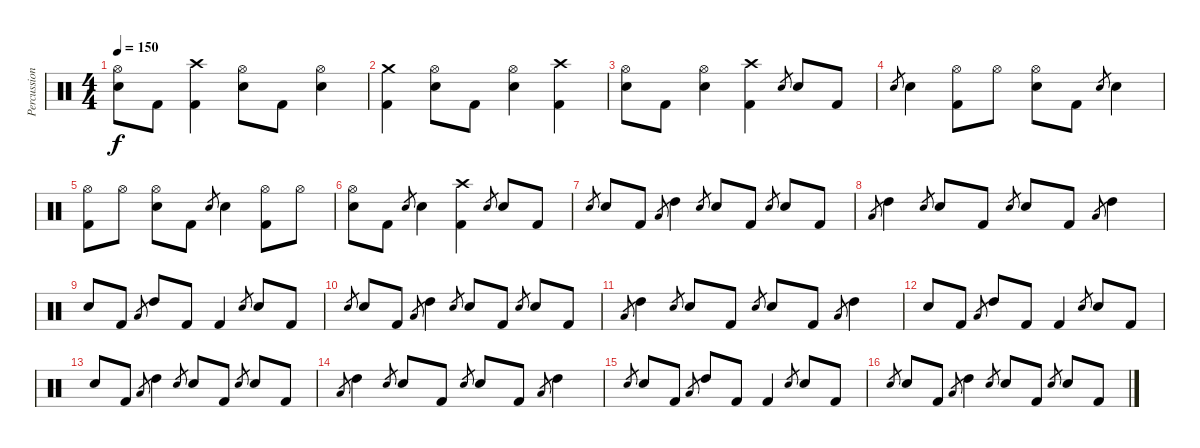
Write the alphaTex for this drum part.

\track ("Percussion" "Percussion") {instrument percussion}
\staff {score}
\articulation defaults
\ts (4 4)
\tempo 150
\clef neutral
\ks c
("Hi-Hat (open)" "Electric Snare (hit)").8{dy f} "Kick (hit) 2".8 ("Crash high (hit)" "Kick (hit) 2").4 ("Hi-Hat (open)" "Electric Snare (hit)").8 "Kick (hit) 2".8 ("Hi-Hat (open)" "Electric Snare (hit)").4 |
("Crash medium (hit)" "Kick (hit) 2").4 ("Hi-Hat (open)" "Electric Snare (hit)").8 "Kick (hit) 2".8 ("Hi-Hat (open)" "Electric Snare (hit)").4 ("Crash high (hit)" "Kick (hit) 2").4 |
("Hi-Hat (open)" "Electric Snare (hit)").8 "Kick (hit) 2".8 ("Hi-Hat (open)" "Electric Snare (hit)").4 ("Crash high (hit)" "Kick (hit) 2").4 "Electric Snare (hit)".8{gr} "Electric Snare (hit)".8 "Kick (hit) 2".8 |
"Electric Snare (hit)".8{gr} "Electric Snare (hit)".4 ("Hi-Hat (open)" "Kick (hit) 2").8 "Hi-Hat (open)".8 ("Hi-Hat (open)" "Electric Snare (hit)").8 "Kick (hit) 2".8 "Electric Snare (hit)".8{gr} "Electric Snare (hit)".4 |
("Hi-Hat (open)" "Kick (hit) 2").8 "Hi-Hat (open)".8 ("Hi-Hat (open)" "Electric Snare (hit)").8 "Kick (hit) 2".8 "Electric Snare (hit)".8{gr} "Electric Snare (hit)".4 ("Hi-Hat (open)" "Kick (hit) 2").8 "Hi-Hat (open)".8 |
("Hi-Hat (open)" "Electric Snare (hit)").8 "Kick (hit) 2".8 "Electric Snare (hit)".8{gr} "Electric Snare (hit)".4 ("Crash high (hit)" "Kick (hit) 2").4 "Electric Snare (hit)".8{gr} "Electric Snare (hit)".8 "Kick (hit) 2".8 |
"Electric Snare (hit)".8{gr} "Electric Snare (hit)".8 "Kick (hit) 2".8 "Low Tom (hit)".8{gr} "High Tom (hit)".4 "Electric Snare (hit)".8{gr} "Electric Snare (hit)".8 "Kick (hit) 2".8 "Electric Snare (hit)".8{gr} "Electric Snare (hit)".8 "Kick (hit) 2".8 |
"Low Tom (hit)".8{gr} "High Tom (hit)".4 "Electric Snare (hit)".8{gr} "Electric Snare (hit)".8 "Kick (hit) 2".8 "Electric Snare (hit)".8{gr} "Electric Snare (hit)".8 "Kick (hit) 2".8 "Low Tom (hit)".8{gr} "High Tom (hit)".4 |
"Electric Snare (hit)".8 "Kick (hit) 2".8 "Low Tom (hit)".8{gr} "High Tom (hit)".8 "Kick (hit) 2".8 "Kick (hit) 2".4 "Electric Snare (hit)".8{gr} "Electric Snare (hit)".8 "Kick (hit) 2".8 |
"Electric Snare (hit)".8{gr} "Electric Snare (hit)".8 "Kick (hit) 2".8 "Low Tom (hit)".8{gr} "High Tom (hit)".4 "Electric Snare (hit)".8{gr} "Electric Snare (hit)".8 "Kick (hit) 2".8 "Electric Snare (hit)".8{gr} "Electric Snare (hit)".8 "Kick (hit) 2".8 |
"Low Tom (hit)".8{gr} "High Tom (hit)".4 "Electric Snare (hit)".8{gr} "Electric Snare (hit)".8 "Kick (hit) 2".8 "Electric Snare (hit)".8{gr} "Electric Snare (hit)".8 "Kick (hit) 2".8 "Low Tom (hit)".8{gr} "High Tom (hit)".4 |
"Electric Snare (hit)".8 "Kick (hit) 2".8 "Low Tom (hit)".8{gr} "High Tom (hit)".8 "Kick (hit) 2".8 "Kick (hit) 2".4 "Electric Snare (hit)".8{gr} "Electric Snare (hit)".8 "Kick (hit) 2".8 |
"Electric Snare (hit)".8 "Kick (hit) 2".8 "Low Tom (hit)".8{gr} "High Tom (hit)".4 "Electric Snare (hit)".8{gr} "Electric Snare (hit)".8 "Kick (hit) 2".8 "Electric Snare (hit)".8{gr} "Electric Snare (hit)".8 "Kick (hit) 2".8 |
"Low Tom (hit)".8{gr} "High Tom (hit)".4 "Electric Snare (hit)".8{gr} "Electric Snare (hit)".8 "Kick (hit) 2".8 "Electric Snare (hit)".8{gr} "Electric Snare (hit)".8 "Kick (hit) 2".8 "Low Tom (hit)".8{gr} "High Tom (hit)".4 |
"Electric Snare (hit)".8{gr} "Electric Snare (hit)".8 "Kick (hit) 2".8 "Low Tom (hit)".8{gr} "High Tom (hit)".8 "Kick (hit) 2".8 "Kick (hit) 2".4 "Electric Snare (hit)".8{gr} "Electric Snare (hit)".8 "Kick (hit) 2".8 |
"Electric Snare (hit)".8{gr} "Electric Snare (hit)".8 "Kick (hit) 2".8 "Low Tom (hit)".8{gr} "High Tom (hit)".4 "Electric Snare (hit)".8{gr} "Electric Snare (hit)".8 "Kick (hit) 2".8 "Electric Snare (hit)".8{gr} "Electric Snare (hit)".8 "Kick (hit) 2".8
